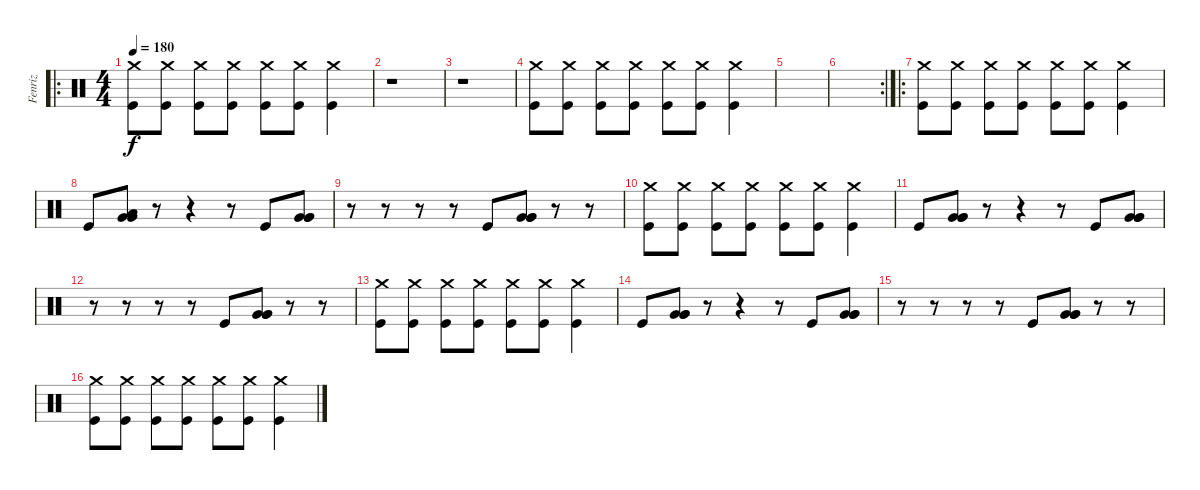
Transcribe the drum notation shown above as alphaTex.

\track ("Fenriz" "Fenriz") {instrument percussion}
\staff {score}
\articulation defaults
\ro
\ts (4 4)
\tempo 180
\clef neutral
\ks c
("Kick (hit)" "Crash medium (hit)").8{dy f} ("Kick (hit)" "Crash medium (hit)").8 ("Kick (hit)" "Crash medium (hit)").8 ("Kick (hit)" "Crash medium (hit)").8 ("Kick (hit)" "Crash medium (hit)").8 ("Kick (hit)" "Crash medium (hit)").8 ("Kick (hit)" "Crash medium (hit)").4 |
r.1 |
r.1 |
("Kick (hit)" "Crash medium (hit)").8 ("Kick (hit)" "Crash medium (hit)").8 ("Kick (hit)" "Crash medium (hit)").8 ("Kick (hit)" "Crash medium (hit)").8 ("Kick (hit)" "Crash medium (hit)").8 ("Kick (hit)" "Crash medium (hit)").8 ("Kick (hit)" "Crash medium (hit)").4 |
|
\rc 2
|
\ro
("Kick (hit)" "Crash medium (hit)").8 ("Kick (hit)" "Crash medium (hit)").8 ("Kick (hit)" "Crash medium (hit)").8 ("Kick (hit)" "Crash medium (hit)").8 ("Kick (hit)" "Crash medium (hit)").8 ("Kick (hit)" "Crash medium (hit)").8 ("Kick (hit)" "Crash medium (hit)").4 |
"Kick (hit)".8 ("Very Low Tom (hit)" "Low Tom (hit)" "Very Low Tom (hit)").8 r.8 r.4 r.8 "Kick (hit)".8 ("Very Low Tom (hit)" "Very Low Tom (hit)" "Very Low Tom (hit)").8 |
r.8 r.8 r.8 r.8 "Kick (hit)".8 ("Very Low Tom (hit)" "Very Low Tom (hit)" "Very Low Tom (hit)").8 r.8 r.8 |
("Kick (hit)" "Crash medium (hit)").8 ("Kick (hit)" "Crash medium (hit)").8 ("Kick (hit)" "Crash medium (hit)").8 ("Kick (hit)" "Crash medium (hit)").8 ("Kick (hit)" "Crash medium (hit)").8 ("Kick (hit)" "Crash medium (hit)").8 ("Kick (hit)" "Crash medium (hit)").4 |
"Kick (hit)".8 ("Very Low Tom (hit)" "Very Low Tom (hit)" "Very Low Tom (hit)").8 r.8 r.4 r.8 "Kick (hit)".8 ("Very Low Tom (hit)" "Very Low Tom (hit)" "Very Low Tom (hit)").8 |
r.8 r.8 r.8 r.8 "Kick (hit)".8 ("Very Low Tom (hit)" "Very Low Tom (hit)" "Very Low Tom (hit)").8 r.8 r.8 |
("Kick (hit)" "Crash medium (hit)").8 ("Kick (hit)" "Crash medium (hit)").8 ("Kick (hit)" "Crash medium (hit)").8 ("Kick (hit)" "Crash medium (hit)").8 ("Kick (hit)" "Crash medium (hit)").8 ("Kick (hit)" "Crash medium (hit)").8 ("Kick (hit)" "Crash medium (hit)").4 |
"Kick (hit)".8 ("Very Low Tom (hit)" "Very Low Tom (hit)" "Very Low Tom (hit)").8 r.8 r.4 r.8 "Kick (hit)".8 ("Very Low Tom (hit)" "Very Low Tom (hit)" "Very Low Tom (hit)").8 |
r.8 r.8 r.8 r.8 "Kick (hit)".8 ("Very Low Tom (hit)" "Very Low Tom (hit)" "Very Low Tom (hit)").8 r.8 r.8 |
("Kick (hit)" "Crash medium (hit)").8 ("Kick (hit)" "Crash medium (hit)").8 ("Kick (hit)" "Crash medium (hit)").8 ("Kick (hit)" "Crash medium (hit)").8 ("Kick (hit)" "Crash medium (hit)").8 ("Kick (hit)" "Crash medium (hit)").8 ("Kick (hit)" "Crash medium (hit)").4
